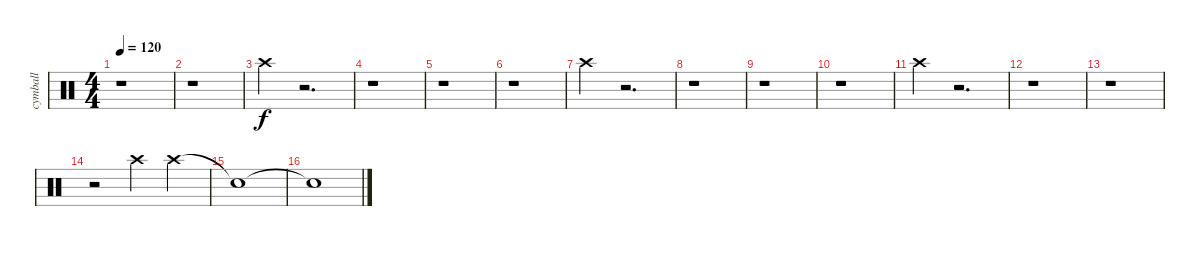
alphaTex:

\track ("cymball" "cymball") {instrument percussion}
\staff {score}
\articulation defaults
\ts (4 4)
\tempo 120
\clef neutral
\ks c
r.1{dy f} |
r.1 |
"Crash high (hit)".4 r.2{d} |
r.1 |
r.1 |
r.1 |
"Crash high (hit)".4 r.2{d} |
r.1 |
r.1 |
r.1 |
"Crash high (hit)".4 r.2{d} |
r.1 |
r.1 |
r.2 "Crash high (hit)".4 "Crash high (hit)".4 |
"Snare (hit)"{t}.1 |
"Snare (hit)"{t}.1
